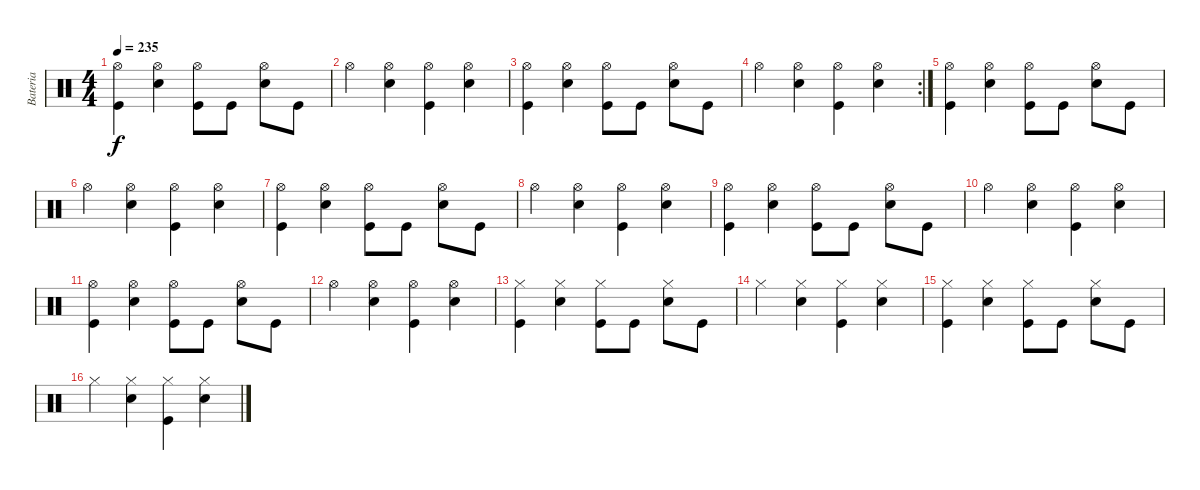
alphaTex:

\track ("Bateria" "Bateria") {instrument percussion}
\staff {score}
\articulation defaults
\ts (4 4)
\tempo 235
\clef neutral
\ks c
("Hi-Hat (open)" "Kick (hit)").4{dy f} ("Hi-Hat (open)" "Electric Snare (hit)").4 ("Hi-Hat (open)" "Kick (hit)").8 "Kick (hit)".8 ("Hi-Hat (open)" "Electric Snare (hit)").8 "Kick (hit)".8 |
"Hi-Hat (open)".4 ("Hi-Hat (open)" "Electric Snare (hit)").4 ("Hi-Hat (open)" "Kick (hit)").4 ("Hi-Hat (open)" "Electric Snare (hit)").4 |
("Hi-Hat (open)" "Kick (hit)").4 ("Hi-Hat (open)" "Electric Snare (hit)").4 ("Hi-Hat (open)" "Kick (hit)").8 "Kick (hit)".8 ("Hi-Hat (open)" "Electric Snare (hit)").8 "Kick (hit)".8 |
\rc 2 "Hi-Hat (open)".4
("Hi-Hat (open)" "Electric Snare (hit)").4 ("Hi-Hat (open)" "Kick (hit)").4 ("Hi-Hat (open)" "Electric Snare (hit)").4 |
("Hi-Hat (open)" "Kick (hit)").4 ("Hi-Hat (open)" "Electric Snare (hit)").4 ("Hi-Hat (open)" "Kick (hit)").8 "Kick (hit)".8 ("Hi-Hat (open)" "Electric Snare (hit)").8 "Kick (hit)".8 |
"Hi-Hat (open)".4 ("Hi-Hat (open)" "Electric Snare (hit)").4 ("Hi-Hat (open)" "Kick (hit)").4 ("Hi-Hat (open)" "Electric Snare (hit)").4 |
("Hi-Hat (open)" "Kick (hit)").4 ("Hi-Hat (open)" "Electric Snare (hit)").4 ("Hi-Hat (open)" "Kick (hit)").8 "Kick (hit)".8 ("Hi-Hat (open)" "Electric Snare (hit)").8 "Kick (hit)".8 |
"Hi-Hat (open)".4 ("Hi-Hat (open)" "Electric Snare (hit)").4 ("Hi-Hat (open)" "Kick (hit)").4 ("Hi-Hat (open)" "Electric Snare (hit)").4 |
("Hi-Hat (open)" "Kick (hit)").4 ("Hi-Hat (open)" "Electric Snare (hit)").4 ("Hi-Hat (open)" "Kick (hit)").8 "Kick (hit)".8 ("Hi-Hat (open)" "Electric Snare (hit)").8 "Kick (hit)".8 |
"Hi-Hat (open)".4 ("Hi-Hat (open)" "Electric Snare (hit)").4 ("Hi-Hat (open)" "Kick (hit)").4 ("Hi-Hat (open)" "Electric Snare (hit)").4 |
("Hi-Hat (open)" "Kick (hit)").4 ("Hi-Hat (open)" "Electric Snare (hit)").4 ("Hi-Hat (open)" "Kick (hit)").8 "Kick (hit)".8 ("Hi-Hat (open)" "Electric Snare (hit)").8 "Kick (hit)".8 |
"Hi-Hat (open)".4 ("Hi-Hat (open)" "Electric Snare (hit)").4 ("Hi-Hat (open)" "Kick (hit)").4 ("Hi-Hat (open)" "Electric Snare (hit)").4 |
("Hi-Hat (closed)" "Kick (hit)").4 ("Hi-Hat (closed)" "Electric Snare (hit)").4 ("Hi-Hat (closed)" "Kick (hit)").8 "Kick (hit)".8 ("Hi-Hat (closed)" "Electric Snare (hit)").8 "Kick (hit)".8 |
"Hi-Hat (closed)".4 ("Hi-Hat (closed)" "Electric Snare (hit)").4 ("Hi-Hat (closed)" "Kick (hit)").4 ("Hi-Hat (closed)" "Electric Snare (hit)").4 |
("Hi-Hat (closed)" "Kick (hit)").4 ("Hi-Hat (closed)" "Electric Snare (hit)").4 ("Hi-Hat (closed)" "Kick (hit)").8 "Kick (hit)".8 ("Hi-Hat (closed)" "Electric Snare (hit)").8 "Kick (hit)".8 |
"Hi-Hat (closed)".4 ("Hi-Hat (closed)" "Electric Snare (hit)").4 ("Hi-Hat (closed)" "Kick (hit)").4 ("Hi-Hat (closed)" "Electric Snare (hit)").4
